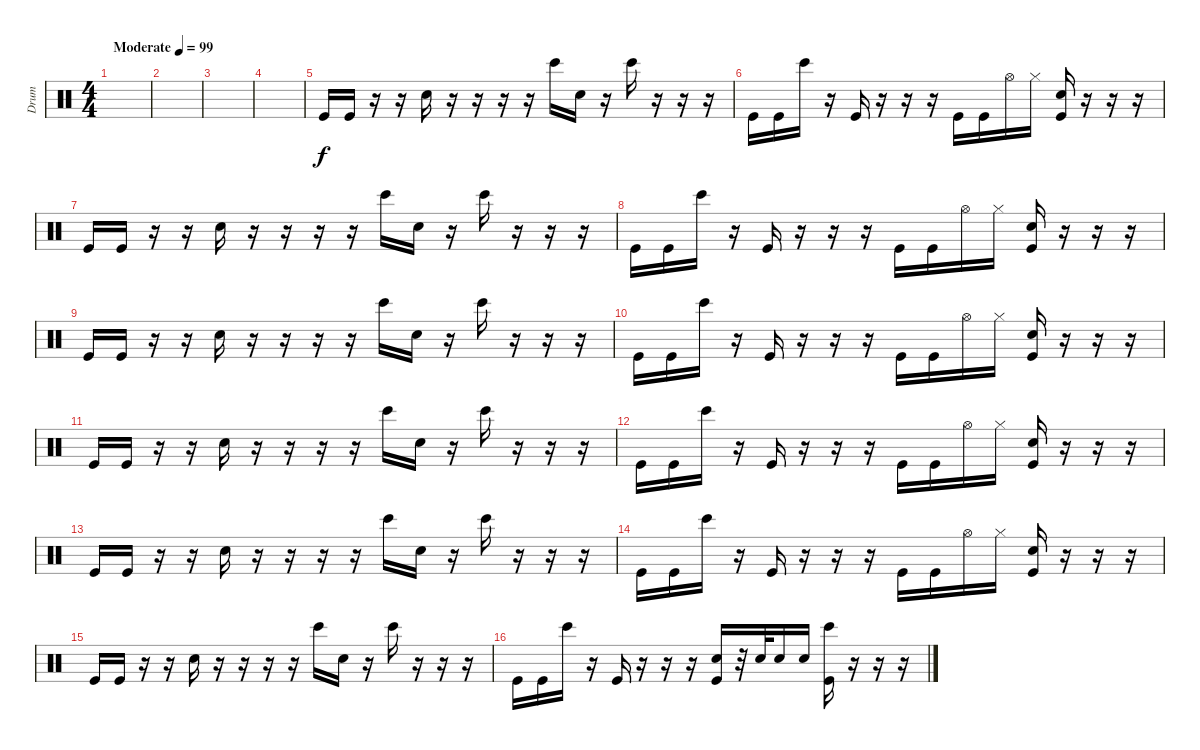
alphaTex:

\track ("Drum" "Drum") {instrument percussion}
\staff {score}
\articulation defaults
\ts (4 4)
\tempo (99 "Moderate")
\clef neutral
\ks c
|
|
|
|
"Kick (hit)".16 "Kick (hit)".16 r.16 r.16 "Hand Clap (hit)".16 r.16 r.16 r.16 r.16 "Bongo High (hit)".16 "Hand Clap (hit)".16 r.16 "Bongo High (hit)".16 r.16 r.16 r.16 |
"Kick (hit)".16 "Kick (hit)".16 "Bongo High (hit)".16 r.16 "Kick (hit)".16 r.16 r.16 r.16 "Kick (hit)".16 "Kick (hit)".16 "Hi-Hat (open)".16 "Hi-Hat (closed)".16 ("Hand Clap (hit)" "Kick (hit)").16 r.16 r.16 r.16 |
"Kick (hit)".16 "Kick (hit)".16 r.16 r.16 "Hand Clap (hit)".16 r.16 r.16 r.16 r.16 "Bongo High (hit)".16 "Hand Clap (hit)".16 r.16 "Bongo High (hit)".16 r.16 r.16 r.16 |
"Kick (hit)".16 "Kick (hit)".16 "Bongo High (hit)".16 r.16 "Kick (hit)".16 r.16 r.16 r.16 "Kick (hit)".16 "Kick (hit)".16 "Hi-Hat (open)".16 "Hi-Hat (closed)".16 ("Hand Clap (hit)" "Kick (hit)").16 r.16 r.16 r.16 |
"Kick (hit)".16 "Kick (hit)".16 r.16 r.16 "Hand Clap (hit)".16 r.16 r.16 r.16 r.16 "Bongo High (hit)".16 "Hand Clap (hit)".16 r.16 "Bongo High (hit)".16 r.16 r.16 r.16 |
"Kick (hit)".16 "Kick (hit)".16 "Bongo High (hit)".16 r.16 "Kick (hit)".16 r.16 r.16 r.16 "Kick (hit)".16 "Kick (hit)".16 "Hi-Hat (open)".16 "Hi-Hat (closed)".16 ("Hand Clap (hit)" "Kick (hit)").16 r.16 r.16 r.16 |
"Kick (hit)".16 "Kick (hit)".16 r.16 r.16 "Hand Clap (hit)".16 r.16 r.16 r.16 r.16 "Bongo High (hit)".16 "Hand Clap (hit)".16 r.16 "Bongo High (hit)".16 r.16 r.16 r.16 |
"Kick (hit)".16 "Kick (hit)".16 "Bongo High (hit)".16 r.16 "Kick (hit)".16 r.16 r.16 r.16 "Kick (hit)".16 "Kick (hit)".16 "Hi-Hat (open)".16 "Hi-Hat (closed)".16 ("Hand Clap (hit)" "Kick (hit)").16 r.16 r.16 r.16 |
"Kick (hit)".16 "Kick (hit)".16 r.16 r.16 "Hand Clap (hit)".16 r.16 r.16 r.16 r.16 "Bongo High (hit)".16 "Hand Clap (hit)".16 r.16 "Bongo High (hit)".16 r.16 r.16 r.16 |
"Kick (hit)".16 "Kick (hit)".16 "Bongo High (hit)".16 r.16 "Kick (hit)".16 r.16 r.16 r.16 "Kick (hit)".16 "Kick (hit)".16 "Hi-Hat (open)".16 "Hi-Hat (closed)".16 ("Hand Clap (hit)" "Kick (hit)").16 r.16 r.16 r.16 |
"Kick (hit)".16 "Kick (hit)".16 r.16 r.16 "Hand Clap (hit)".16 r.16 r.16 r.16 r.16 "Bongo High (hit)".16 "Hand Clap (hit)".16 r.16 "Bongo High (hit)".16 r.16 r.16 r.16 |
"Kick (hit)".16 "Kick (hit)".16 "Bongo High (hit)".16 r.16 "Kick (hit)".16 r.16 r.16 r.16 ("Hand Clap (hit)" "Kick (hit)").16 r.32 "Hand Clap (hit)".32 "Hand Clap (hit)".16 "Hand Clap (hit)".16 ("Bongo High (hit)" "Kick (hit)").16 r.16 r.16 r.16
